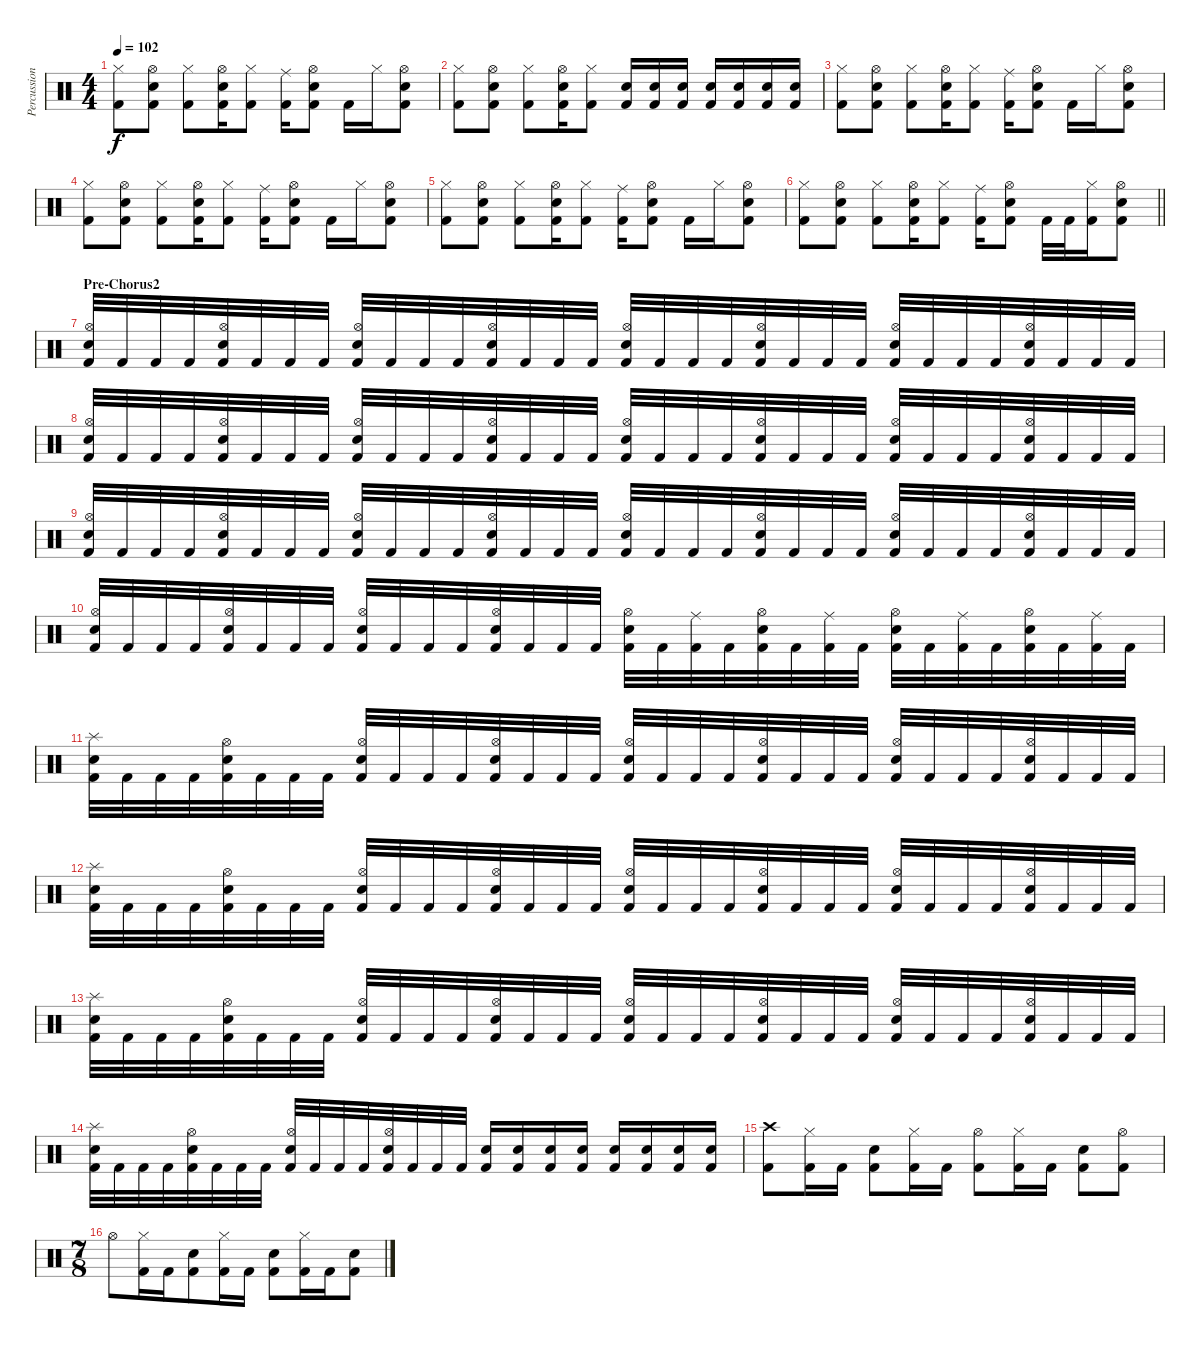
\track ("Percussion" "Percussion") {instrument percussion}
\staff {score}
\articulation defaults
\ts (4 4)
\tempo 102
\clef neutral
\ks c
("Hi-Hat (closed)" "Kick (hit) 2").8{dy f} ("Hi-Hat (open)" "Snare (hit) 2" "Kick (hit) 2").8 ("Hi-Hat (closed)" "Kick (hit) 2").8 ("Hi-Hat (open)" "Snare (hit) 2" "Kick (hit) 2").16 ("Hi-Hat (closed)" "Kick (hit) 2").8 ("Ride (middle)" "Kick (hit) 2").16 ("Hi-Hat (open)" "Snare (hit) 2" "Kick (hit) 2").8 "Kick (hit) 2".16 "Hi-Hat (closed)".16 ("Hi-Hat (open)" "Snare (hit) 2" "Kick (hit) 2").8 |
("Hi-Hat (closed)" "Kick (hit) 2").8 ("Hi-Hat (open)" "Snare (hit) 2" "Kick (hit) 2").8 ("Hi-Hat (closed)" "Kick (hit) 2").8 ("Hi-Hat (open)" "Snare (hit) 2" "Kick (hit) 2").16 ("Hi-Hat (closed)" "Kick (hit) 2").8 ("Snare (hit) 2" "Kick (hit) 2").16 ("Snare (hit) 2" "Kick (hit) 2").16 ("Snare (hit) 2" "Kick (hit) 2").16 ("Snare (hit) 2" "Kick (hit) 2").16 ("Snare (hit) 2" "Kick (hit) 2").16 ("Snare (hit) 2" "Kick (hit) 2").16 ("Snare (hit) 2" "Kick (hit) 2").16 |
("Hi-Hat (closed)" "Kick (hit) 2").8 ("Hi-Hat (open)" "Snare (hit) 2" "Kick (hit) 2").8 ("Hi-Hat (closed)" "Kick (hit) 2").8 ("Hi-Hat (open)" "Snare (hit) 2" "Kick (hit) 2").16 ("Hi-Hat (closed)" "Kick (hit) 2").8 ("Ride (middle)" "Kick (hit) 2").16 ("Hi-Hat (open)" "Snare (hit) 2" "Kick (hit) 2").8 "Kick (hit) 2".16 "Hi-Hat (closed)".16 ("Hi-Hat (open)" "Snare (hit) 2" "Kick (hit) 2").8 |
("Hi-Hat (closed)" "Kick (hit) 2").8 ("Hi-Hat (open)" "Snare (hit) 2" "Kick (hit) 2").8 ("Hi-Hat (closed)" "Kick (hit) 2").8 ("Hi-Hat (open)" "Snare (hit) 2" "Kick (hit) 2").16 ("Hi-Hat (closed)" "Kick (hit) 2").8 ("Ride (middle)" "Kick (hit) 2").16 ("Hi-Hat (open)" "Snare (hit) 2" "Kick (hit) 2").8 "Kick (hit) 2".16 "Hi-Hat (closed)".16 ("Hi-Hat (open)" "Snare (hit) 2" "Kick (hit) 2").8 |
("Hi-Hat (closed)" "Kick (hit) 2").8 ("Hi-Hat (open)" "Snare (hit) 2" "Kick (hit) 2").8 ("Hi-Hat (closed)" "Kick (hit) 2").8 ("Hi-Hat (open)" "Snare (hit) 2" "Kick (hit) 2").16 ("Hi-Hat (closed)" "Kick (hit) 2").8 ("Ride (middle)" "Kick (hit) 2").16 ("Hi-Hat (open)" "Snare (hit) 2" "Kick (hit) 2").8 "Kick (hit) 2".16 "Hi-Hat (closed)".16 ("Hi-Hat (open)" "Snare (hit) 2" "Kick (hit) 2").8 |
\barLineRight lightlight
("Hi-Hat (closed)" "Kick (hit) 2").8 ("Hi-Hat (open)" "Snare (hit) 2" "Kick (hit) 2").8 ("Hi-Hat (closed)" "Kick (hit) 2").8 ("Hi-Hat (open)" "Snare (hit) 2" "Kick (hit) 2").16 ("Hi-Hat (closed)" "Kick (hit) 2").8 ("Ride (middle)" "Kick (hit) 2").16 ("Hi-Hat (open)" "Snare (hit) 2" "Kick (hit) 2").8 "Kick (hit) 2".32 "Kick (hit) 2".32 ("Hi-Hat (closed)" "Kick (hit) 2").16 ("Hi-Hat (open)" "Snare (hit) 2" "Kick (hit) 2").8 |
\section ("" "Pre-Chorus2")
("Hi-Hat (open)" "Snare (hit) 2" "Kick (hit) 2").32 "Kick (hit) 2".32 "Kick (hit) 2".32 "Kick (hit) 2".32 ("Hi-Hat (open)" "Snare (hit) 2" "Kick (hit) 2").32 "Kick (hit) 2".32 "Kick (hit) 2".32 "Kick (hit) 2".32 ("Hi-Hat (open)" "Snare (hit) 2" "Kick (hit) 2").32 "Kick (hit) 2".32 "Kick (hit) 2".32 "Kick (hit) 2".32 ("Hi-Hat (open)" "Snare (hit) 2" "Kick (hit) 2").32 "Kick (hit) 2".32 "Kick (hit) 2".32 "Kick (hit) 2".32 ("Hi-Hat (open)" "Snare (hit) 2" "Kick (hit) 2").32 "Kick (hit) 2".32 "Kick (hit) 2".32 "Kick (hit) 2".32 ("Hi-Hat (open)" "Snare (hit) 2" "Kick (hit) 2").32 "Kick (hit) 2".32 "Kick (hit) 2".32 "Kick (hit) 2".32 ("Hi-Hat (open)" "Snare (hit) 2" "Kick (hit) 2").32 "Kick (hit) 2".32 "Kick (hit) 2".32 "Kick (hit) 2".32 ("Hi-Hat (open)" "Snare (hit) 2" "Kick (hit) 2").32 "Kick (hit) 2".32 "Kick (hit) 2".32 "Kick (hit) 2".32 |
("Hi-Hat (open)" "Snare (hit) 2" "Kick (hit) 2").32 "Kick (hit) 2".32 "Kick (hit) 2".32 "Kick (hit) 2".32 ("Hi-Hat (open)" "Snare (hit) 2" "Kick (hit) 2").32 "Kick (hit) 2".32 "Kick (hit) 2".32 "Kick (hit) 2".32 ("Hi-Hat (open)" "Snare (hit) 2" "Kick (hit) 2").32 "Kick (hit) 2".32 "Kick (hit) 2".32 "Kick (hit) 2".32 ("Hi-Hat (open)" "Snare (hit) 2" "Kick (hit) 2").32 "Kick (hit) 2".32 "Kick (hit) 2".32 "Kick (hit) 2".32 ("Hi-Hat (open)" "Snare (hit) 2" "Kick (hit) 2").32 "Kick (hit) 2".32 "Kick (hit) 2".32 "Kick (hit) 2".32 ("Hi-Hat (open)" "Snare (hit) 2" "Kick (hit) 2").32 "Kick (hit) 2".32 "Kick (hit) 2".32 "Kick (hit) 2".32 ("Hi-Hat (open)" "Snare (hit) 2" "Kick (hit) 2").32 "Kick (hit) 2".32 "Kick (hit) 2".32 "Kick (hit) 2".32 ("Hi-Hat (open)" "Snare (hit) 2" "Kick (hit) 2").32 "Kick (hit) 2".32 "Kick (hit) 2".32 "Kick (hit) 2".32 |
("Hi-Hat (open)" "Snare (hit) 2" "Kick (hit) 2").32 "Kick (hit) 2".32 "Kick (hit) 2".32 "Kick (hit) 2".32 ("Hi-Hat (open)" "Snare (hit) 2" "Kick (hit) 2").32 "Kick (hit) 2".32 "Kick (hit) 2".32 "Kick (hit) 2".32 ("Hi-Hat (open)" "Snare (hit) 2" "Kick (hit) 2").32 "Kick (hit) 2".32 "Kick (hit) 2".32 "Kick (hit) 2".32 ("Hi-Hat (open)" "Snare (hit) 2" "Kick (hit) 2").32 "Kick (hit) 2".32 "Kick (hit) 2".32 "Kick (hit) 2".32 ("Hi-Hat (open)" "Snare (hit) 2" "Kick (hit) 2").32 "Kick (hit) 2".32 "Kick (hit) 2".32 "Kick (hit) 2".32 ("Hi-Hat (open)" "Snare (hit) 2" "Kick (hit) 2").32 "Kick (hit) 2".32 "Kick (hit) 2".32 "Kick (hit) 2".32 ("Hi-Hat (open)" "Snare (hit) 2" "Kick (hit) 2").32 "Kick (hit) 2".32 "Kick (hit) 2".32 "Kick (hit) 2".32 ("Hi-Hat (open)" "Snare (hit) 2" "Kick (hit) 2").32 "Kick (hit) 2".32 "Kick (hit) 2".32 "Kick (hit) 2".32 |
("Hi-Hat (open)" "Snare (hit) 2" "Kick (hit) 2").32 "Kick (hit) 2".32 "Kick (hit) 2".32 "Kick (hit) 2".32 ("Hi-Hat (open)" "Snare (hit) 2" "Kick (hit) 2").32 "Kick (hit) 2".32 "Kick (hit) 2".32 "Kick (hit) 2".32 ("Hi-Hat (open)" "Snare (hit) 2" "Kick (hit) 2").32 "Kick (hit) 2".32 "Kick (hit) 2".32 "Kick (hit) 2".32 ("Hi-Hat (open)" "Snare (hit) 2" "Kick (hit) 2").32 "Kick (hit) 2".32 "Kick (hit) 2".32 "Kick (hit) 2".32 ("Hi-Hat (open)" "Snare (hit) 2" "Kick (hit) 2").32 "Kick (hit) 2".32 ("Ride (middle)" "Kick (hit) 2").32 "Kick (hit) 2".32 ("Hi-Hat (open)" "Snare (hit) 2" "Kick (hit) 2").32 "Kick (hit) 2".32 ("Ride (middle)" "Kick (hit) 2").32 "Kick (hit) 2".32 ("Hi-Hat (open)" "Snare (hit) 2" "Kick (hit) 2").32 "Kick (hit) 2".32 ("Ride (middle)" "Kick (hit) 2").32 "Kick (hit) 2".32 ("Hi-Hat (open)" "Snare (hit) 2" "Kick (hit) 2").32 "Kick (hit) 2".32 ("Ride (middle)" "Kick (hit) 2").32 "Kick (hit) 2".32 |
("Splash (hit)" "Snare (hit) 2" "Kick (hit) 2").32 "Kick (hit) 2".32 "Kick (hit) 2".32 "Kick (hit) 2".32 ("Hi-Hat (open)" "Snare (hit) 2" "Kick (hit) 2").32 "Kick (hit) 2".32 "Kick (hit) 2".32 "Kick (hit) 2".32 ("Hi-Hat (open)" "Snare (hit) 2" "Kick (hit) 2").32 "Kick (hit) 2".32 "Kick (hit) 2".32 "Kick (hit) 2".32 ("Hi-Hat (open)" "Snare (hit) 2" "Kick (hit) 2").32 "Kick (hit) 2".32 "Kick (hit) 2".32 "Kick (hit) 2".32 ("Hi-Hat (open)" "Snare (hit) 2" "Kick (hit) 2").32 "Kick (hit) 2".32 "Kick (hit) 2".32 "Kick (hit) 2".32 ("Hi-Hat (open)" "Snare (hit) 2" "Kick (hit) 2").32 "Kick (hit) 2".32 "Kick (hit) 2".32 "Kick (hit) 2".32 ("Hi-Hat (open)" "Snare (hit) 2" "Kick (hit) 2").32 "Kick (hit) 2".32 "Kick (hit) 2".32 "Kick (hit) 2".32 ("Hi-Hat (open)" "Snare (hit) 2" "Kick (hit) 2").32 "Kick (hit) 2".32 "Kick (hit) 2".32 "Kick (hit) 2".32 |
("Splash (hit)" "Snare (hit) 2" "Kick (hit) 2").32 "Kick (hit) 2".32 "Kick (hit) 2".32 "Kick (hit) 2".32 ("Hi-Hat (open)" "Snare (hit) 2" "Kick (hit) 2").32 "Kick (hit) 2".32 "Kick (hit) 2".32 "Kick (hit) 2".32 ("Hi-Hat (open)" "Snare (hit) 2" "Kick (hit) 2").32 "Kick (hit) 2".32 "Kick (hit) 2".32 "Kick (hit) 2".32 ("Hi-Hat (open)" "Snare (hit) 2" "Kick (hit) 2").32 "Kick (hit) 2".32 "Kick (hit) 2".32 "Kick (hit) 2".32 ("Hi-Hat (open)" "Snare (hit) 2" "Kick (hit) 2").32 "Kick (hit) 2".32 "Kick (hit) 2".32 "Kick (hit) 2".32 ("Hi-Hat (open)" "Snare (hit) 2" "Kick (hit) 2").32 "Kick (hit) 2".32 "Kick (hit) 2".32 "Kick (hit) 2".32 ("Hi-Hat (open)" "Snare (hit) 2" "Kick (hit) 2").32 "Kick (hit) 2".32 "Kick (hit) 2".32 "Kick (hit) 2".32 ("Hi-Hat (open)" "Snare (hit) 2" "Kick (hit) 2").32 "Kick (hit) 2".32 "Kick (hit) 2".32 "Kick (hit) 2".32 |
("Splash (hit)" "Snare (hit) 2" "Kick (hit) 2").32 "Kick (hit) 2".32 "Kick (hit) 2".32 "Kick (hit) 2".32 ("Hi-Hat (open)" "Snare (hit) 2" "Kick (hit) 2").32 "Kick (hit) 2".32 "Kick (hit) 2".32 "Kick (hit) 2".32 ("Hi-Hat (open)" "Snare (hit) 2" "Kick (hit) 2").32 "Kick (hit) 2".32 "Kick (hit) 2".32 "Kick (hit) 2".32 ("Hi-Hat (open)" "Snare (hit) 2" "Kick (hit) 2").32 "Kick (hit) 2".32 "Kick (hit) 2".32 "Kick (hit) 2".32 ("Hi-Hat (open)" "Snare (hit) 2" "Kick (hit) 2").32 "Kick (hit) 2".32 "Kick (hit) 2".32 "Kick (hit) 2".32 ("Hi-Hat (open)" "Snare (hit) 2" "Kick (hit) 2").32 "Kick (hit) 2".32 "Kick (hit) 2".32 "Kick (hit) 2".32 ("Hi-Hat (open)" "Snare (hit) 2" "Kick (hit) 2").32 "Kick (hit) 2".32 "Kick (hit) 2".32 "Kick (hit) 2".32 ("Hi-Hat (open)" "Snare (hit) 2" "Kick (hit) 2").32 "Kick (hit) 2".32 "Kick (hit) 2".32 "Kick (hit) 2".32 |
("Splash (hit)" "Snare (hit) 2" "Kick (hit) 2").32 "Kick (hit) 2".32 "Kick (hit) 2".32 "Kick (hit) 2".32 ("Hi-Hat (open)" "Snare (hit) 2" "Kick (hit) 2").32 "Kick (hit) 2".32 "Kick (hit) 2".32 "Kick (hit) 2".32 ("Hi-Hat (open)" "Snare (hit) 2" "Kick (hit) 2").32 "Kick (hit) 2".32 "Kick (hit) 2".32 "Kick (hit) 2".32 ("Hi-Hat (open)" "Snare (hit) 2" "Kick (hit) 2").32 "Kick (hit) 2".32 "Kick (hit) 2".32 "Kick (hit) 2".32 ("Snare (hit) 2" "Kick (hit) 2").16 ("Snare (hit) 2" "Kick (hit) 2").16 ("Snare (hit) 2" "Kick (hit) 2").16 ("Snare (hit) 2" "Kick (hit) 2").16 ("Snare (hit) 2" "Kick (hit) 2").16 ("Snare (hit) 2" "Kick (hit) 2").16 ("Snare (hit) 2" "Kick (hit) 2").16 ("Snare (hit) 2" "Kick (hit) 2").16 |
("Crash high (hit)" "Kick (hit) 2").8 ("Hi-Hat (closed)" "Kick (hit) 2").16 "Kick (hit) 2".16 ("Snare (hit) 2" "Kick (hit) 2").8 ("Hi-Hat (closed)" "Kick (hit) 2").16 "Kick (hit) 2".16 ("Hi-Hat (open)" "Kick (hit) 2").8 ("Hi-Hat (closed)" "Kick (hit) 2").16 "Kick (hit) 2".16 ("Snare (hit) 2" "Kick (hit) 2").8 ("Hi-Hat (open)" "Kick (hit) 2").8 |
\ts (7 8)
"Hi-Hat (open)".8 ("Hi-Hat (closed)" "Kick (hit) 2").16 "Kick (hit) 2".16 ("Snare (hit) 2" "Kick (hit) 2").8 ("Hi-Hat (closed)" "Kick (hit) 2").16 "Kick (hit) 2".16 ("Snare (hit) 2" "Kick (hit) 2").8 ("Hi-Hat (closed)" "Kick (hit) 2").16 "Kick (hit) 2".16 ("Snare (hit) 2" "Kick (hit) 2").8
